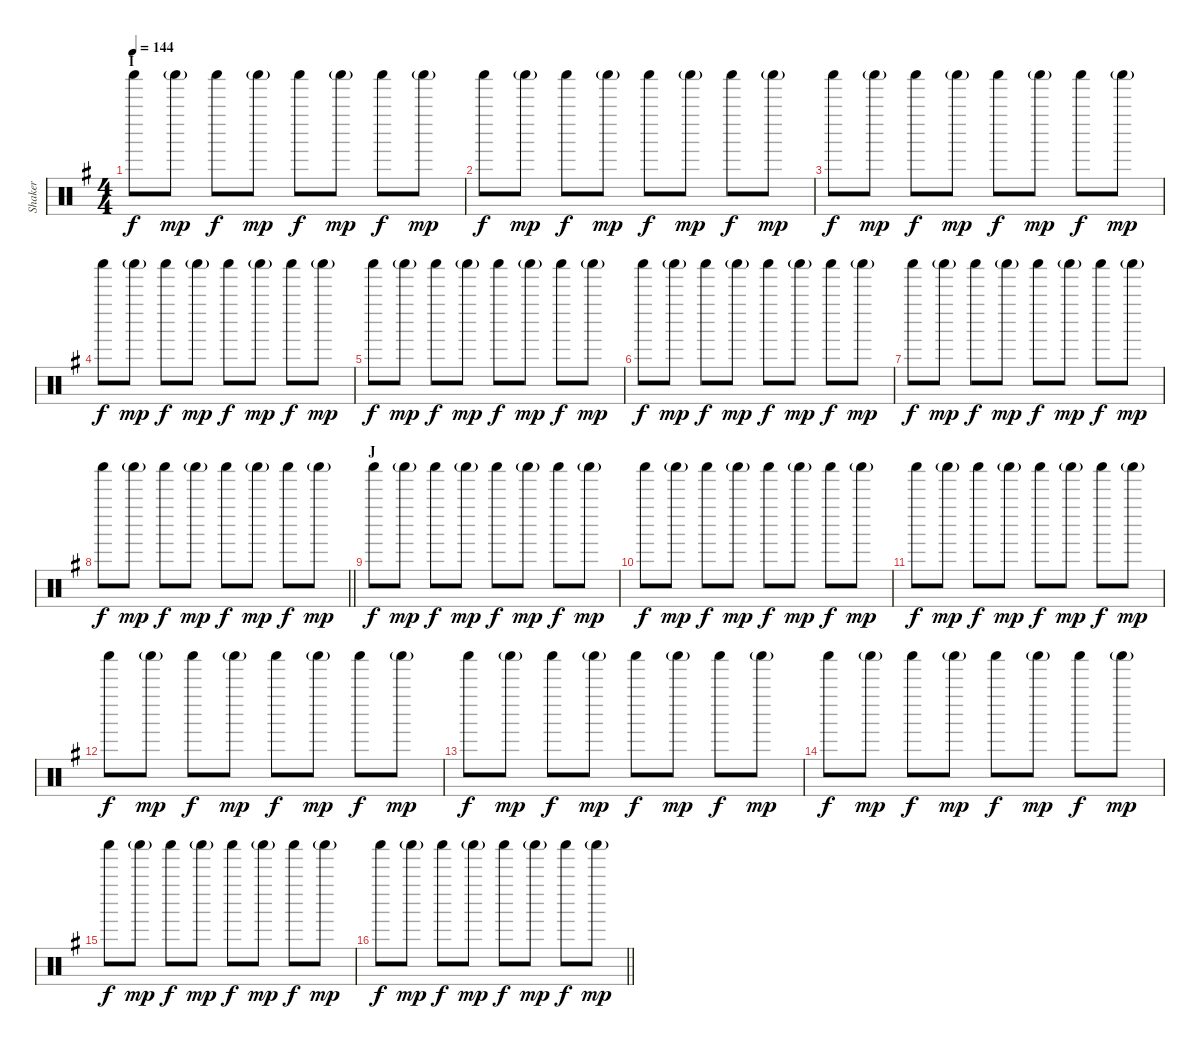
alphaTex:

\track ("Shaker" "Shaker") {instrument percussion}
\staff {score}
\articulation defaults
\ts (4 4)
\section ("" "I")
\tempo 144
\clef neutral
\ks g "Shaker (hit)".8{dy f} "Shaker (hit)"{g}.8{dy mp} "Shaker (hit)".8{dy f} "Shaker (hit)"{g}.8{dy mp} "Shaker (hit)".8{dy f} "Shaker (hit)"{g}.8{dy mp} "Shaker (hit)".8{dy f} "Shaker (hit)"{g}.8{dy mp}
|
"Shaker (hit)".8{dy f} "Shaker (hit)"{g}.8{dy mp} "Shaker (hit)".8{dy f} "Shaker (hit)"{g}.8{dy mp} "Shaker (hit)".8{dy f} "Shaker (hit)"{g}.8{dy mp} "Shaker (hit)".8{dy f} "Shaker (hit)"{g}.8{dy mp} |
"Shaker (hit)".8{dy f} "Shaker (hit)"{g}.8{dy mp} "Shaker (hit)".8{dy f} "Shaker (hit)"{g}.8{dy mp} "Shaker (hit)".8{dy f} "Shaker (hit)"{g}.8{dy mp} "Shaker (hit)".8{dy f} "Shaker (hit)"{g}.8{dy mp} |
"Shaker (hit)".8{dy f} "Shaker (hit)"{g}.8{dy mp} "Shaker (hit)".8{dy f} "Shaker (hit)"{g}.8{dy mp} "Shaker (hit)".8{dy f} "Shaker (hit)"{g}.8{dy mp} "Shaker (hit)".8{dy f} "Shaker (hit)"{g}.8{dy mp} |
"Shaker (hit)".8{dy f} "Shaker (hit)"{g}.8{dy mp} "Shaker (hit)".8{dy f} "Shaker (hit)"{g}.8{dy mp} "Shaker (hit)".8{dy f} "Shaker (hit)"{g}.8{dy mp} "Shaker (hit)".8{dy f} "Shaker (hit)"{g}.8{dy mp} |
"Shaker (hit)".8{dy f} "Shaker (hit)"{g}.8{dy mp} "Shaker (hit)".8{dy f} "Shaker (hit)"{g}.8{dy mp} "Shaker (hit)".8{dy f} "Shaker (hit)"{g}.8{dy mp} "Shaker (hit)".8{dy f} "Shaker (hit)"{g}.8{dy mp} |
"Shaker (hit)".8{dy f} "Shaker (hit)"{g}.8{dy mp} "Shaker (hit)".8{dy f} "Shaker (hit)"{g}.8{dy mp} "Shaker (hit)".8{dy f} "Shaker (hit)"{g}.8{dy mp} "Shaker (hit)".8{dy f} "Shaker (hit)"{g}.8{dy mp} |
\barLineRight lightlight "Shaker (hit)".8{dy f} "Shaker (hit)"{g}.8{dy mp} "Shaker (hit)".8{dy f} "Shaker (hit)"{g}.8{dy mp} "Shaker (hit)".8{dy f} "Shaker (hit)"{g}.8{dy mp} "Shaker (hit)".8{dy f} "Shaker (hit)"{g}.8{dy mp}
|
\section ("" "J")
"Shaker (hit)".8{dy f} "Shaker (hit)"{g}.8{dy mp} "Shaker (hit)".8{dy f} "Shaker (hit)"{g}.8{dy mp} "Shaker (hit)".8{dy f} "Shaker (hit)"{g}.8{dy mp} "Shaker (hit)".8{dy f} "Shaker (hit)"{g}.8{dy mp} |
"Shaker (hit)".8{dy f} "Shaker (hit)"{g}.8{dy mp} "Shaker (hit)".8{dy f} "Shaker (hit)"{g}.8{dy mp} "Shaker (hit)".8{dy f} "Shaker (hit)"{g}.8{dy mp} "Shaker (hit)".8{dy f} "Shaker (hit)"{g}.8{dy mp} |
"Shaker (hit)".8{dy f} "Shaker (hit)"{g}.8{dy mp} "Shaker (hit)".8{dy f} "Shaker (hit)"{g}.8{dy mp} "Shaker (hit)".8{dy f} "Shaker (hit)"{g}.8{dy mp} "Shaker (hit)".8{dy f} "Shaker (hit)"{g}.8{dy mp} |
"Shaker (hit)".8{dy f} "Shaker (hit)"{g}.8{dy mp} "Shaker (hit)".8{dy f} "Shaker (hit)"{g}.8{dy mp} "Shaker (hit)".8{dy f} "Shaker (hit)"{g}.8{dy mp} "Shaker (hit)".8{dy f} "Shaker (hit)"{g}.8{dy mp} |
"Shaker (hit)".8{dy f} "Shaker (hit)"{g}.8{dy mp} "Shaker (hit)".8{dy f} "Shaker (hit)"{g}.8{dy mp} "Shaker (hit)".8{dy f} "Shaker (hit)"{g}.8{dy mp} "Shaker (hit)".8{dy f} "Shaker (hit)"{g}.8{dy mp} |
"Shaker (hit)".8{dy f} "Shaker (hit)"{g}.8{dy mp} "Shaker (hit)".8{dy f} "Shaker (hit)"{g}.8{dy mp} "Shaker (hit)".8{dy f} "Shaker (hit)"{g}.8{dy mp} "Shaker (hit)".8{dy f} "Shaker (hit)"{g}.8{dy mp} |
"Shaker (hit)".8{dy f} "Shaker (hit)"{g}.8{dy mp} "Shaker (hit)".8{dy f} "Shaker (hit)"{g}.8{dy mp} "Shaker (hit)".8{dy f} "Shaker (hit)"{g}.8{dy mp} "Shaker (hit)".8{dy f} "Shaker (hit)"{g}.8{dy mp} |
\barLineRight lightlight "Shaker (hit)".8{dy f} "Shaker (hit)"{g}.8{dy mp} "Shaker (hit)".8{dy f} "Shaker (hit)"{g}.8{dy mp} "Shaker (hit)".8{dy f} "Shaker (hit)"{g}.8{dy mp} "Shaker (hit)".8{dy f} "Shaker (hit)"{g}.8{dy mp}
